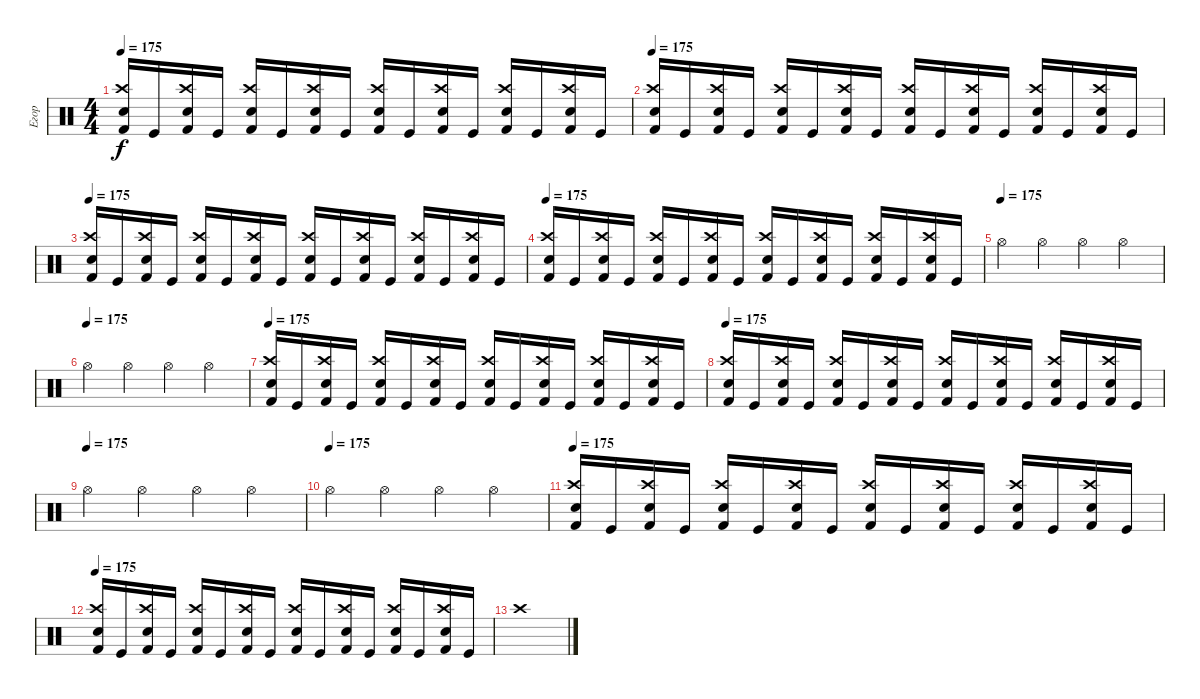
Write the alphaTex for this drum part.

\track ("Егор" "Егор") {instrument percussion}
\staff {score}
\articulation defaults
\ts (4 4)
\tempo 175
\clef neutral
\ks c
("Snare (hit) 2" "Crash high (hit)" "Kick (hit) 2").16{dy f} "Kick (hit)".16 ("Snare (hit) 2" "Crash high (hit)" "Kick (hit) 2").16 "Kick (hit)".16 ("Snare (hit) 2" "Crash high (hit)" "Kick (hit) 2").16 "Kick (hit)".16 ("Snare (hit) 2" "Crash high (hit)" "Kick (hit) 2").16 "Kick (hit)".16 ("Snare (hit) 2" "Crash high (hit)" "Kick (hit) 2").16 "Kick (hit)".16 ("Snare (hit) 2" "Crash high (hit)" "Kick (hit) 2").16 "Kick (hit)".16 ("Snare (hit) 2" "Crash high (hit)" "Kick (hit) 2").16 "Kick (hit)".16 ("Snare (hit) 2" "Crash high (hit)" "Kick (hit) 2").16 "Kick (hit)".16 |
\tempo 175
("Snare (hit) 2" "Crash high (hit)" "Kick (hit) 2").16 "Kick (hit)".16 ("Snare (hit) 2" "Crash high (hit)" "Kick (hit) 2").16 "Kick (hit)".16 ("Snare (hit) 2" "Crash high (hit)" "Kick (hit) 2").16 "Kick (hit)".16 ("Snare (hit) 2" "Crash high (hit)" "Kick (hit) 2").16 "Kick (hit)".16 ("Snare (hit) 2" "Crash high (hit)" "Kick (hit) 2").16 "Kick (hit)".16 ("Snare (hit) 2" "Crash high (hit)" "Kick (hit) 2").16 "Kick (hit)".16 ("Snare (hit) 2" "Crash high (hit)" "Kick (hit) 2").16 "Kick (hit)".16 ("Snare (hit) 2" "Crash high (hit)" "Kick (hit) 2").16 "Kick (hit)".16 |
\tempo 175
("Snare (hit) 2" "Crash high (hit)" "Kick (hit) 2").16 "Kick (hit)".16 ("Snare (hit) 2" "Crash high (hit)" "Kick (hit) 2").16 "Kick (hit)".16 ("Snare (hit) 2" "Crash high (hit)" "Kick (hit) 2").16 "Kick (hit)".16 ("Snare (hit) 2" "Crash high (hit)" "Kick (hit) 2").16 "Kick (hit)".16 ("Snare (hit) 2" "Crash high (hit)" "Kick (hit) 2").16 "Kick (hit)".16 ("Snare (hit) 2" "Crash high (hit)" "Kick (hit) 2").16 "Kick (hit)".16 ("Snare (hit) 2" "Crash high (hit)" "Kick (hit) 2").16 "Kick (hit)".16 ("Snare (hit) 2" "Crash high (hit)" "Kick (hit) 2").16 "Kick (hit)".16 |
\tempo 175
("Snare (hit) 2" "Crash high (hit)" "Kick (hit) 2").16 "Kick (hit)".16 ("Snare (hit) 2" "Crash high (hit)" "Kick (hit) 2").16 "Kick (hit)".16 ("Snare (hit) 2" "Crash high (hit)" "Kick (hit) 2").16 "Kick (hit)".16 ("Snare (hit) 2" "Crash high (hit)" "Kick (hit) 2").16 "Kick (hit)".16 ("Snare (hit) 2" "Crash high (hit)" "Kick (hit) 2").16 "Kick (hit)".16 ("Snare (hit) 2" "Crash high (hit)" "Kick (hit) 2").16 "Kick (hit)".16 ("Snare (hit) 2" "Crash high (hit)" "Kick (hit) 2").16 "Kick (hit)".16 ("Snare (hit) 2" "Crash high (hit)" "Kick (hit) 2").16 "Kick (hit)".16 |
\tempo (175)
"Hi-Hat (open)".4 "Hi-Hat (open)".4 "Hi-Hat (open)".4 "Hi-Hat (open)".4 |
\tempo (175)
"Hi-Hat (open)".4 "Hi-Hat (open)".4 "Hi-Hat (open)".4 "Hi-Hat (open)".4 |
\tempo 175
("Snare (hit) 2" "Crash high (hit)" "Kick (hit) 2").16 "Kick (hit)".16 ("Snare (hit) 2" "Crash high (hit)" "Kick (hit) 2").16 "Kick (hit)".16 ("Snare (hit) 2" "Crash high (hit)" "Kick (hit) 2").16 "Kick (hit)".16 ("Snare (hit) 2" "Crash high (hit)" "Kick (hit) 2").16 "Kick (hit)".16 ("Snare (hit) 2" "Crash high (hit)" "Kick (hit) 2").16 "Kick (hit)".16 ("Snare (hit) 2" "Crash high (hit)" "Kick (hit) 2").16 "Kick (hit)".16 ("Snare (hit) 2" "Crash high (hit)" "Kick (hit) 2").16 "Kick (hit)".16 ("Snare (hit) 2" "Crash high (hit)" "Kick (hit) 2").16 "Kick (hit)".16 |
\tempo 175
("Snare (hit) 2" "Crash high (hit)" "Kick (hit) 2").16 "Kick (hit)".16 ("Snare (hit) 2" "Crash high (hit)" "Kick (hit) 2").16 "Kick (hit)".16 ("Snare (hit) 2" "Crash high (hit)" "Kick (hit) 2").16 "Kick (hit)".16 ("Snare (hit) 2" "Crash high (hit)" "Kick (hit) 2").16 "Kick (hit)".16 ("Snare (hit) 2" "Crash high (hit)" "Kick (hit) 2").16 "Kick (hit)".16 ("Snare (hit) 2" "Crash high (hit)" "Kick (hit) 2").16 "Kick (hit)".16 ("Snare (hit) 2" "Crash high (hit)" "Kick (hit) 2").16 "Kick (hit)".16 ("Snare (hit) 2" "Crash high (hit)" "Kick (hit) 2").16 "Kick (hit)".16 |
\tempo (175)
"Hi-Hat (open)".4 "Hi-Hat (open)".4 "Hi-Hat (open)".4 "Hi-Hat (open)".4 |
\tempo (175)
"Hi-Hat (open)".4 "Hi-Hat (open)".4 "Hi-Hat (open)".4 "Hi-Hat (open)".4 |
\tempo 175
("Snare (hit) 2" "Crash high (hit)" "Kick (hit) 2").16 "Kick (hit)".16 ("Snare (hit) 2" "Crash high (hit)" "Kick (hit) 2").16 "Kick (hit)".16 ("Snare (hit) 2" "Crash high (hit)" "Kick (hit) 2").16 "Kick (hit)".16 ("Snare (hit) 2" "Crash high (hit)" "Kick (hit) 2").16 "Kick (hit)".16 ("Snare (hit) 2" "Crash high (hit)" "Kick (hit) 2").16 "Kick (hit)".16 ("Snare (hit) 2" "Crash high (hit)" "Kick (hit) 2").16 "Kick (hit)".16 ("Snare (hit) 2" "Crash high (hit)" "Kick (hit) 2").16 "Kick (hit)".16 ("Snare (hit) 2" "Crash high (hit)" "Kick (hit) 2").16 "Kick (hit)".16 |
\tempo 175
("Snare (hit) 2" "Crash high (hit)" "Kick (hit) 2").16 "Kick (hit)".16 ("Snare (hit) 2" "Crash high (hit)" "Kick (hit) 2").16 "Kick (hit)".16 ("Snare (hit) 2" "Crash high (hit)" "Kick (hit) 2").16 "Kick (hit)".16 ("Snare (hit) 2" "Crash high (hit)" "Kick (hit) 2").16 "Kick (hit)".16 ("Snare (hit) 2" "Crash high (hit)" "Kick (hit) 2").16 "Kick (hit)".16 ("Snare (hit) 2" "Crash high (hit)" "Kick (hit) 2").16 "Kick (hit)".16 ("Snare (hit) 2" "Crash high (hit)" "Kick (hit) 2").16 "Kick (hit)".16 ("Snare (hit) 2" "Crash high (hit)" "Kick (hit) 2").16 "Kick (hit)".16 |
"Crash high (hit)".1
